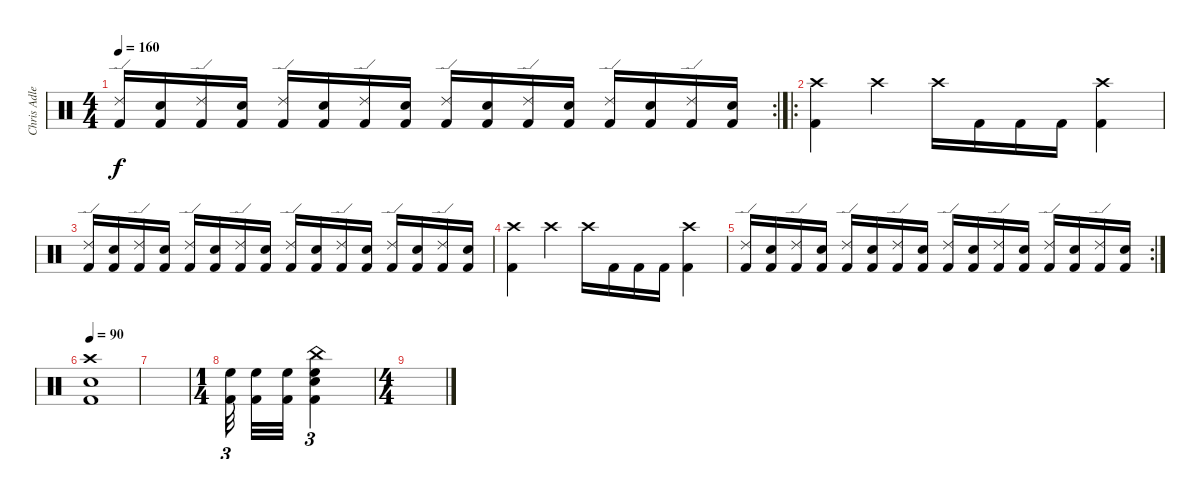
\track ("Chris Adler" "Chris Adle") {instrument percussion}
\staff {score}
\articulation defaults
\rc 2
\ts (4 4)
\tempo 160
\clef neutral
\ks c
("Ride (edge) 2" "Kick (hit) 2").16{dy f} ("Electric Snare (hit)" "Kick (hit) 2").16 ("Ride (edge) 2" "Kick (hit) 2").16 ("Electric Snare (hit)" "Kick (hit) 2").16 ("Ride (edge) 2" "Kick (hit) 2").16 ("Electric Snare (hit)" "Kick (hit) 2").16 ("Ride (edge) 2" "Kick (hit) 2").16 ("Electric Snare (hit)" "Kick (hit) 2").16 ("Ride (edge) 2" "Kick (hit) 2").16 ("Electric Snare (hit)" "Kick (hit) 2").16 ("Ride (edge) 2" "Kick (hit) 2").16 ("Electric Snare (hit)" "Kick (hit) 2").16 ("Ride (edge) 2" "Kick (hit) 2").16 ("Electric Snare (hit)" "Kick (hit) 2").16 ("Ride (edge) 2" "Kick (hit) 2").16 ("Electric Snare (hit)" "Kick (hit) 2").16 |
\ro
("Crash high (hit)" "Kick (hit) 2").4 "Crash high (hit)".4 "Crash high (hit)".16 "Kick (hit) 2".16 "Kick (hit) 2".16 "Kick (hit) 2".16 ("Crash high (hit)" "Kick (hit) 2").4 |
("Ride (edge) 2" "Kick (hit) 2").16 ("Electric Snare (hit)" "Kick (hit) 2").16 ("Ride (edge) 2" "Kick (hit) 2").16 ("Electric Snare (hit)" "Kick (hit) 2").16 ("Ride (edge) 2" "Kick (hit) 2").16 ("Electric Snare (hit)" "Kick (hit) 2").16 ("Ride (edge) 2" "Kick (hit) 2").16 ("Electric Snare (hit)" "Kick (hit) 2").16 ("Ride (edge) 2" "Kick (hit) 2").16 ("Electric Snare (hit)" "Kick (hit) 2").16 ("Ride (edge) 2" "Kick (hit) 2").16 ("Electric Snare (hit)" "Kick (hit) 2").16 ("Ride (edge) 2" "Kick (hit) 2").16 ("Electric Snare (hit)" "Kick (hit) 2").16 ("Ride (edge) 2" "Kick (hit) 2").16 ("Electric Snare (hit)" "Kick (hit) 2").16 |
("Crash high (hit)" "Kick (hit) 2").4 "Crash high (hit)".4 "Crash high (hit)".16 "Kick (hit) 2".16 "Kick (hit) 2".16 "Kick (hit) 2".16 ("Crash high (hit)" "Kick (hit) 2").4 |
\rc 2
("Ride (edge) 2" "Kick (hit) 2").16 ("Electric Snare (hit)" "Kick (hit) 2").16 ("Ride (edge) 2" "Kick (hit) 2").16 ("Electric Snare (hit)" "Kick (hit) 2").16 ("Ride (edge) 2" "Kick (hit) 2").16 ("Electric Snare (hit)" "Kick (hit) 2").16 ("Ride (edge) 2" "Kick (hit) 2").16 ("Electric Snare (hit)" "Kick (hit) 2").16 ("Ride (edge) 2" "Kick (hit) 2").16 ("Electric Snare (hit)" "Kick (hit) 2").16 ("Ride (edge) 2" "Kick (hit) 2").16 ("Electric Snare (hit)" "Kick (hit) 2").16 ("Ride (edge) 2" "Kick (hit) 2").16 ("Electric Snare (hit)" "Kick (hit) 2").16 ("Ride (edge) 2" "Kick (hit) 2").16 ("Electric Snare (hit)" "Kick (hit) 2").16 |
\tempo 90
("Crash high (hit)" "Electric Snare (hit)" "Kick (hit) 2").1 |
|
\ts (1 4)
("High Floor Tom (hit)" "Kick (hit) 2").32{tu (3 2)} ("High Floor Tom (hit)" "Kick (hit) 2").32 ("High Floor Tom (hit)" "Kick (hit) 2").32 ("China (hit)" "Electric Snare (hit)" "High Floor Tom (hit)" "Kick (hit) 2").4{tu (3 2)} |
\ts (4 4)
